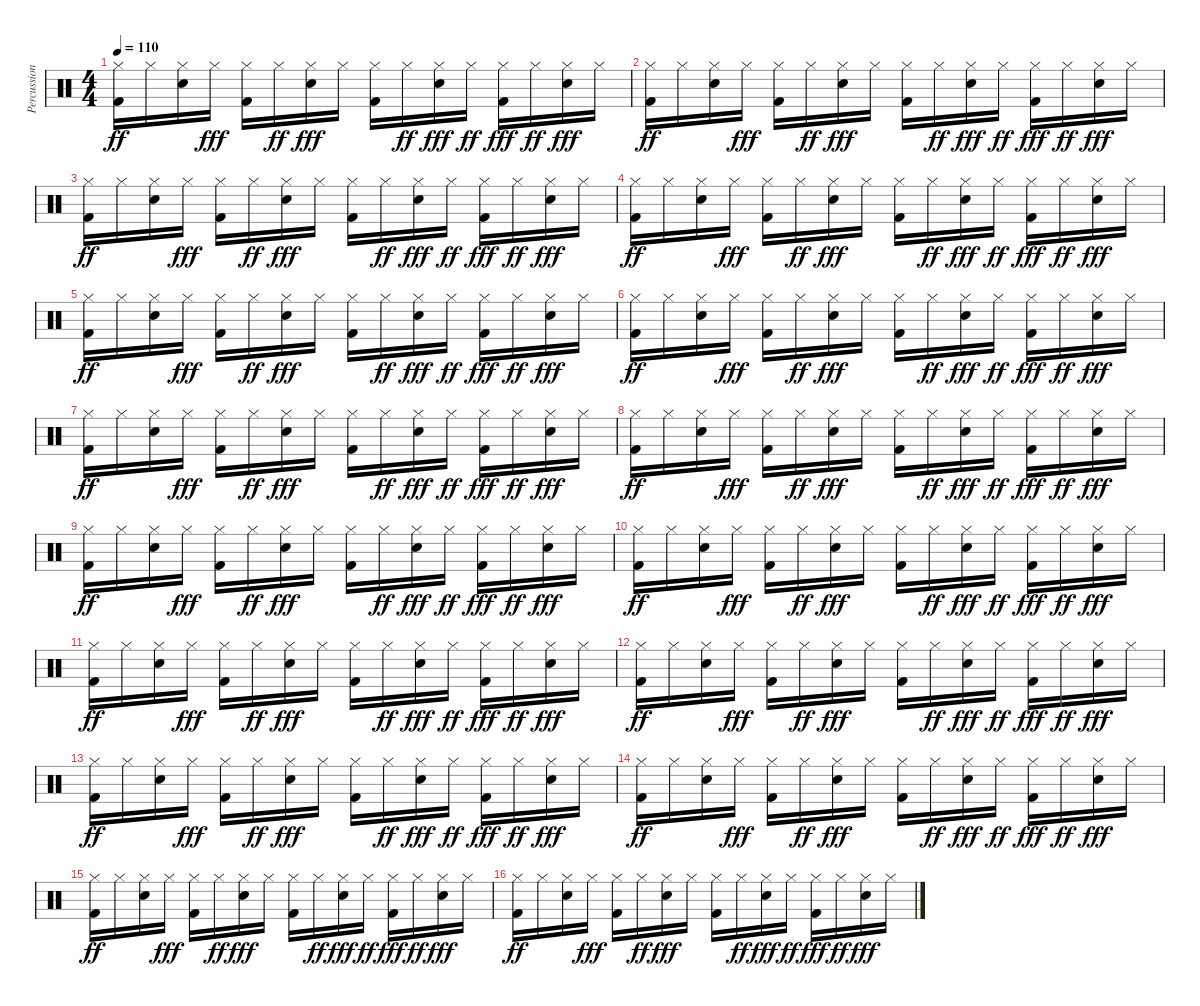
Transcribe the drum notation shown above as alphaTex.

\track ("Percussion" "Percussion") {instrument percussion}
\staff {score}
\articulation defaults
\ts (4 4)
\tempo 110
\clef neutral
\ks c
("Kick (hit) 2" "Hi-Hat (closed)").16{dy ff} "Hi-Hat (closed)".16 ("Electric Snare (hit)" "Hi-Hat (closed)").16 "Hi-Hat (closed)".16{dy fff} ("Kick (hit) 2" "Hi-Hat (closed)").16 "Hi-Hat (closed)".16{dy ff} ("Electric Snare (hit)" "Hi-Hat (closed)").16{dy fff} "Hi-Hat (closed)".16 ("Kick (hit) 2" "Hi-Hat (closed)").16 "Hi-Hat (closed)".16{dy ff} ("Electric Snare (hit)" "Hi-Hat (closed)").16{dy fff} "Hi-Hat (closed)".16{dy ff} ("Kick (hit) 2" "Hi-Hat (closed)").16{dy fff} "Hi-Hat (closed)".16{dy ff} ("Electric Snare (hit)" "Hi-Hat (closed)").16{dy fff} "Hi-Hat (closed)".16 |
("Kick (hit) 2" "Hi-Hat (closed)").16{dy ff} "Hi-Hat (closed)".16 ("Electric Snare (hit)" "Hi-Hat (closed)").16 "Hi-Hat (closed)".16{dy fff} ("Kick (hit) 2" "Hi-Hat (closed)").16 "Hi-Hat (closed)".16{dy ff} ("Electric Snare (hit)" "Hi-Hat (closed)").16{dy fff} "Hi-Hat (closed)".16 ("Kick (hit) 2" "Hi-Hat (closed)").16 "Hi-Hat (closed)".16{dy ff} ("Electric Snare (hit)" "Hi-Hat (closed)").16{dy fff} "Hi-Hat (closed)".16{dy ff} ("Kick (hit) 2" "Hi-Hat (closed)").16{dy fff} "Hi-Hat (closed)".16{dy ff} ("Electric Snare (hit)" "Hi-Hat (closed)").16{dy fff} "Hi-Hat (closed)".16 |
("Kick (hit) 2" "Hi-Hat (closed)").16{dy ff} "Hi-Hat (closed)".16 ("Electric Snare (hit)" "Hi-Hat (closed)").16 "Hi-Hat (closed)".16{dy fff} ("Kick (hit) 2" "Hi-Hat (closed)").16 "Hi-Hat (closed)".16{dy ff} ("Electric Snare (hit)" "Hi-Hat (closed)").16{dy fff} "Hi-Hat (closed)".16 ("Kick (hit) 2" "Hi-Hat (closed)").16 "Hi-Hat (closed)".16{dy ff} ("Electric Snare (hit)" "Hi-Hat (closed)").16{dy fff} "Hi-Hat (closed)".16{dy ff} ("Kick (hit) 2" "Hi-Hat (closed)").16{dy fff} "Hi-Hat (closed)".16{dy ff} ("Electric Snare (hit)" "Hi-Hat (closed)").16{dy fff} "Hi-Hat (closed)".16 |
("Kick (hit) 2" "Hi-Hat (closed)").16{dy ff} "Hi-Hat (closed)".16 ("Electric Snare (hit)" "Hi-Hat (closed)").16 "Hi-Hat (closed)".16{dy fff} ("Kick (hit) 2" "Hi-Hat (closed)").16 "Hi-Hat (closed)".16{dy ff} ("Electric Snare (hit)" "Hi-Hat (closed)").16{dy fff} "Hi-Hat (closed)".16 ("Kick (hit) 2" "Hi-Hat (closed)").16 "Hi-Hat (closed)".16{dy ff} ("Electric Snare (hit)" "Hi-Hat (closed)").16{dy fff} "Hi-Hat (closed)".16{dy ff} ("Kick (hit) 2" "Hi-Hat (closed)").16{dy fff} "Hi-Hat (closed)".16{dy ff} ("Electric Snare (hit)" "Hi-Hat (closed)").16{dy fff} "Hi-Hat (closed)".16 |
("Kick (hit) 2" "Hi-Hat (closed)").16{dy ff} "Hi-Hat (closed)".16 ("Electric Snare (hit)" "Hi-Hat (closed)").16 "Hi-Hat (closed)".16{dy fff} ("Kick (hit) 2" "Hi-Hat (closed)").16 "Hi-Hat (closed)".16{dy ff} ("Electric Snare (hit)" "Hi-Hat (closed)").16{dy fff} "Hi-Hat (closed)".16 ("Kick (hit) 2" "Hi-Hat (closed)").16 "Hi-Hat (closed)".16{dy ff} ("Electric Snare (hit)" "Hi-Hat (closed)").16{dy fff} "Hi-Hat (closed)".16{dy ff} ("Kick (hit) 2" "Hi-Hat (closed)").16{dy fff} "Hi-Hat (closed)".16{dy ff} ("Electric Snare (hit)" "Hi-Hat (closed)").16{dy fff} "Hi-Hat (closed)".16 |
("Kick (hit) 2" "Hi-Hat (closed)").16{dy ff} "Hi-Hat (closed)".16 ("Electric Snare (hit)" "Hi-Hat (closed)").16 "Hi-Hat (closed)".16{dy fff} ("Kick (hit) 2" "Hi-Hat (closed)").16 "Hi-Hat (closed)".16{dy ff} ("Electric Snare (hit)" "Hi-Hat (closed)").16{dy fff} "Hi-Hat (closed)".16 ("Kick (hit) 2" "Hi-Hat (closed)").16 "Hi-Hat (closed)".16{dy ff} ("Electric Snare (hit)" "Hi-Hat (closed)").16{dy fff} "Hi-Hat (closed)".16{dy ff} ("Kick (hit) 2" "Hi-Hat (closed)").16{dy fff} "Hi-Hat (closed)".16{dy ff} ("Electric Snare (hit)" "Hi-Hat (closed)").16{dy fff} "Hi-Hat (closed)".16 |
("Kick (hit) 2" "Hi-Hat (closed)").16{dy ff} "Hi-Hat (closed)".16 ("Electric Snare (hit)" "Hi-Hat (closed)").16 "Hi-Hat (closed)".16{dy fff} ("Kick (hit) 2" "Hi-Hat (closed)").16 "Hi-Hat (closed)".16{dy ff} ("Electric Snare (hit)" "Hi-Hat (closed)").16{dy fff} "Hi-Hat (closed)".16 ("Kick (hit) 2" "Hi-Hat (closed)").16 "Hi-Hat (closed)".16{dy ff} ("Electric Snare (hit)" "Hi-Hat (closed)").16{dy fff} "Hi-Hat (closed)".16{dy ff} ("Kick (hit) 2" "Hi-Hat (closed)").16{dy fff} "Hi-Hat (closed)".16{dy ff} ("Electric Snare (hit)" "Hi-Hat (closed)").16{dy fff} "Hi-Hat (closed)".16 |
("Kick (hit) 2" "Hi-Hat (closed)").16{dy ff} "Hi-Hat (closed)".16 ("Electric Snare (hit)" "Hi-Hat (closed)").16 "Hi-Hat (closed)".16{dy fff} ("Kick (hit) 2" "Hi-Hat (closed)").16 "Hi-Hat (closed)".16{dy ff} ("Electric Snare (hit)" "Hi-Hat (closed)").16{dy fff} "Hi-Hat (closed)".16 ("Kick (hit) 2" "Hi-Hat (closed)").16 "Hi-Hat (closed)".16{dy ff} ("Electric Snare (hit)" "Hi-Hat (closed)").16{dy fff} "Hi-Hat (closed)".16{dy ff} ("Kick (hit) 2" "Hi-Hat (closed)").16{dy fff} "Hi-Hat (closed)".16{dy ff} ("Electric Snare (hit)" "Hi-Hat (closed)").16{dy fff} "Hi-Hat (closed)".16 |
("Kick (hit) 2" "Hi-Hat (closed)").16{dy ff} "Hi-Hat (closed)".16 ("Electric Snare (hit)" "Hi-Hat (closed)").16 "Hi-Hat (closed)".16{dy fff} ("Kick (hit) 2" "Hi-Hat (closed)").16 "Hi-Hat (closed)".16{dy ff} ("Electric Snare (hit)" "Hi-Hat (closed)").16{dy fff} "Hi-Hat (closed)".16 ("Kick (hit) 2" "Hi-Hat (closed)").16 "Hi-Hat (closed)".16{dy ff} ("Electric Snare (hit)" "Hi-Hat (closed)").16{dy fff} "Hi-Hat (closed)".16{dy ff} ("Kick (hit) 2" "Hi-Hat (closed)").16{dy fff} "Hi-Hat (closed)".16{dy ff} ("Electric Snare (hit)" "Hi-Hat (closed)").16{dy fff} "Hi-Hat (closed)".16 |
("Kick (hit) 2" "Hi-Hat (closed)").16{dy ff} "Hi-Hat (closed)".16 ("Electric Snare (hit)" "Hi-Hat (closed)").16 "Hi-Hat (closed)".16{dy fff} ("Kick (hit) 2" "Hi-Hat (closed)").16 "Hi-Hat (closed)".16{dy ff} ("Electric Snare (hit)" "Hi-Hat (closed)").16{dy fff} "Hi-Hat (closed)".16 ("Kick (hit) 2" "Hi-Hat (closed)").16 "Hi-Hat (closed)".16{dy ff} ("Electric Snare (hit)" "Hi-Hat (closed)").16{dy fff} "Hi-Hat (closed)".16{dy ff} ("Kick (hit) 2" "Hi-Hat (closed)").16{dy fff} "Hi-Hat (closed)".16{dy ff} ("Electric Snare (hit)" "Hi-Hat (closed)").16{dy fff} "Hi-Hat (closed)".16 |
("Kick (hit) 2" "Hi-Hat (closed)").16{dy ff} "Hi-Hat (closed)".16 ("Electric Snare (hit)" "Hi-Hat (closed)").16 "Hi-Hat (closed)".16{dy fff} ("Kick (hit) 2" "Hi-Hat (closed)").16 "Hi-Hat (closed)".16{dy ff} ("Electric Snare (hit)" "Hi-Hat (closed)").16{dy fff} "Hi-Hat (closed)".16 ("Kick (hit) 2" "Hi-Hat (closed)").16 "Hi-Hat (closed)".16{dy ff} ("Electric Snare (hit)" "Hi-Hat (closed)").16{dy fff} "Hi-Hat (closed)".16{dy ff} ("Kick (hit) 2" "Hi-Hat (closed)").16{dy fff} "Hi-Hat (closed)".16{dy ff} ("Electric Snare (hit)" "Hi-Hat (closed)").16{dy fff} "Hi-Hat (closed)".16 |
("Kick (hit) 2" "Hi-Hat (closed)").16{dy ff} "Hi-Hat (closed)".16 ("Electric Snare (hit)" "Hi-Hat (closed)").16 "Hi-Hat (closed)".16{dy fff} ("Kick (hit) 2" "Hi-Hat (closed)").16 "Hi-Hat (closed)".16{dy ff} ("Electric Snare (hit)" "Hi-Hat (closed)").16{dy fff} "Hi-Hat (closed)".16 ("Kick (hit) 2" "Hi-Hat (closed)").16 "Hi-Hat (closed)".16{dy ff} ("Electric Snare (hit)" "Hi-Hat (closed)").16{dy fff} "Hi-Hat (closed)".16{dy ff} ("Kick (hit) 2" "Hi-Hat (closed)").16{dy fff} "Hi-Hat (closed)".16{dy ff} ("Electric Snare (hit)" "Hi-Hat (closed)").16{dy fff} "Hi-Hat (closed)".16 |
("Kick (hit) 2" "Hi-Hat (closed)").16{dy ff} "Hi-Hat (closed)".16 ("Electric Snare (hit)" "Hi-Hat (closed)").16 "Hi-Hat (closed)".16{dy fff} ("Kick (hit) 2" "Hi-Hat (closed)").16 "Hi-Hat (closed)".16{dy ff} ("Electric Snare (hit)" "Hi-Hat (closed)").16{dy fff} "Hi-Hat (closed)".16 ("Kick (hit) 2" "Hi-Hat (closed)").16 "Hi-Hat (closed)".16{dy ff} ("Electric Snare (hit)" "Hi-Hat (closed)").16{dy fff} "Hi-Hat (closed)".16{dy ff} ("Kick (hit) 2" "Hi-Hat (closed)").16{dy fff} "Hi-Hat (closed)".16{dy ff} ("Electric Snare (hit)" "Hi-Hat (closed)").16{dy fff} "Hi-Hat (closed)".16 |
("Kick (hit) 2" "Hi-Hat (closed)").16{dy ff} "Hi-Hat (closed)".16 ("Electric Snare (hit)" "Hi-Hat (closed)").16 "Hi-Hat (closed)".16{dy fff} ("Kick (hit) 2" "Hi-Hat (closed)").16 "Hi-Hat (closed)".16{dy ff} ("Electric Snare (hit)" "Hi-Hat (closed)").16{dy fff} "Hi-Hat (closed)".16 ("Kick (hit) 2" "Hi-Hat (closed)").16 "Hi-Hat (closed)".16{dy ff} ("Electric Snare (hit)" "Hi-Hat (closed)").16{dy fff} "Hi-Hat (closed)".16{dy ff} ("Kick (hit) 2" "Hi-Hat (closed)").16{dy fff} "Hi-Hat (closed)".16{dy ff} ("Electric Snare (hit)" "Hi-Hat (closed)").16{dy fff} "Hi-Hat (closed)".16 |
("Kick (hit) 2" "Hi-Hat (closed)").16{dy ff} "Hi-Hat (closed)".16 ("Electric Snare (hit)" "Hi-Hat (closed)").16 "Hi-Hat (closed)".16{dy fff} ("Kick (hit) 2" "Hi-Hat (closed)").16 "Hi-Hat (closed)".16{dy ff} ("Electric Snare (hit)" "Hi-Hat (closed)").16{dy fff} "Hi-Hat (closed)".16 ("Kick (hit) 2" "Hi-Hat (closed)").16 "Hi-Hat (closed)".16{dy ff} ("Electric Snare (hit)" "Hi-Hat (closed)").16{dy fff} "Hi-Hat (closed)".16{dy ff} ("Kick (hit) 2" "Hi-Hat (closed)").16{dy fff} "Hi-Hat (closed)".16{dy ff} ("Electric Snare (hit)" "Hi-Hat (closed)").16{dy fff} "Hi-Hat (closed)".16 |
("Kick (hit) 2" "Hi-Hat (closed)").16{dy ff} "Hi-Hat (closed)".16 ("Electric Snare (hit)" "Hi-Hat (closed)").16 "Hi-Hat (closed)".16{dy fff} ("Kick (hit) 2" "Hi-Hat (closed)").16 "Hi-Hat (closed)".16{dy ff} ("Electric Snare (hit)" "Hi-Hat (closed)").16{dy fff} "Hi-Hat (closed)".16 ("Kick (hit) 2" "Hi-Hat (closed)").16 "Hi-Hat (closed)".16{dy ff} ("Electric Snare (hit)" "Hi-Hat (closed)").16{dy fff} "Hi-Hat (closed)".16{dy ff} ("Kick (hit) 2" "Hi-Hat (closed)").16{dy fff} "Hi-Hat (closed)".16{dy ff} ("Electric Snare (hit)" "Hi-Hat (closed)").16{dy fff} "Hi-Hat (closed)".16
